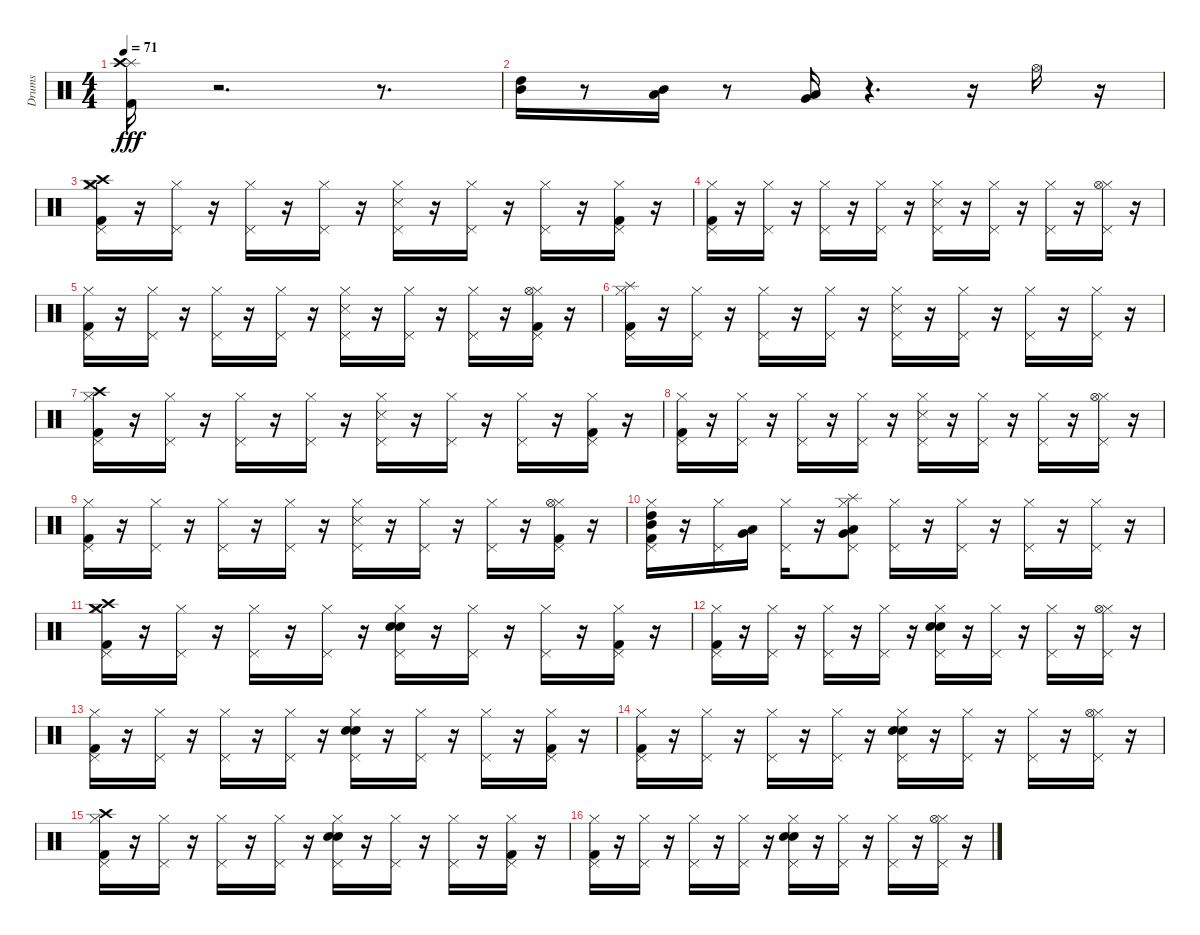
\track ("Drums" "Drums") {instrument percussion}
\staff {score}
\articulation defaults
\ts (4 4)
\tempo 71
\clef neutral
\ks c
("Splash (hit)" "Crash high (hit)" "Kick (hit) 2").16{dy fff} r.2{d} r.8{d} |
("Mid Tom (hit)" "High Tom (hit)").16 r.8 ("Low Tom (hit)" "Mid Tom (hit)").16 r.8 ("Very Low Tom (hit)" "Low Tom (hit)").16 r.4{d} r.16 "Hi-Hat (open)".16 r.16 |
("Hi-Hat (closed)" "Crash medium (hit)" "Crash high (hit)" "Pedal Hi-Hat (hit)" "Kick (hit) 2").16 r.16 ("Hi-Hat (closed)" "Pedal Hi-Hat (hit)").16 r.16 ("Hi-Hat (closed)" "Pedal Hi-Hat (hit)").16 r.16 ("Hi-Hat (closed)" "Pedal Hi-Hat (hit)").16 r.16 ("Hi-Hat (closed)" "Snare (side stick) 3" "Pedal Hi-Hat (hit)").16 r.16 ("Hi-Hat (closed)" "Pedal Hi-Hat (hit)").16 r.16 ("Hi-Hat (closed)" "Pedal Hi-Hat (hit)").16 r.16 ("Hi-Hat (closed)" "Kick (hit) 2" "Pedal Hi-Hat (hit)").16 r.16 |
("Hi-Hat (closed)" "Kick (hit) 2" "Pedal Hi-Hat (hit)").16 r.16 ("Hi-Hat (closed)" "Pedal Hi-Hat (hit)").16 r.16 ("Hi-Hat (closed)" "Pedal Hi-Hat (hit)").16 r.16 ("Hi-Hat (closed)" "Pedal Hi-Hat (hit)").16 r.16 ("Hi-Hat (closed)" "Snare (side stick) 3" "Pedal Hi-Hat (hit)").16 r.16 ("Hi-Hat (closed)" "Pedal Hi-Hat (hit)").16 r.16 ("Hi-Hat (closed)" "Pedal Hi-Hat (hit)").16 r.16 ("Hi-Hat (closed)" "Pedal Hi-Hat (hit)" "Hi-Hat (open)").16 r.16 |
("Hi-Hat (closed)" "Kick (hit) 2" "Pedal Hi-Hat (hit)").16 r.16 ("Hi-Hat (closed)" "Pedal Hi-Hat (hit)").16 r.16 ("Hi-Hat (closed)" "Pedal Hi-Hat (hit)").16 r.16 ("Hi-Hat (closed)" "Pedal Hi-Hat (hit)").16 r.16 ("Hi-Hat (closed)" "Snare (side stick) 3" "Pedal Hi-Hat (hit)").16 r.16 ("Hi-Hat (closed)" "Pedal Hi-Hat (hit)").16 r.16 ("Hi-Hat (closed)" "Pedal Hi-Hat (hit)").16 r.16 ("Hi-Hat (closed)" "Pedal Hi-Hat (hit)" "Hi-Hat (open)" "Kick (hit) 2").16 r.16 |
("Hi-Hat (closed)" "Splash (hit)" "Kick (hit) 2" "Pedal Hi-Hat (hit)").16 r.16 ("Hi-Hat (closed)" "Pedal Hi-Hat (hit)").16 r.16 ("Hi-Hat (closed)" "Pedal Hi-Hat (hit)").16 r.16 ("Hi-Hat (closed)" "Pedal Hi-Hat (hit)").16 r.16 ("Hi-Hat (closed)" "Snare (side stick) 3" "Pedal Hi-Hat (hit)").16 r.16 ("Hi-Hat (closed)" "Pedal Hi-Hat (hit)").16 r.16 ("Hi-Hat (closed)" "Pedal Hi-Hat (hit)").16 r.16 ("Hi-Hat (closed)" "Pedal Hi-Hat (hit)").16 r.16 |
("Hi-Hat (closed)" "Kick (hit) 2" "Pedal Hi-Hat (hit)" "Crash high (hit)").16 r.16 ("Hi-Hat (closed)" "Pedal Hi-Hat (hit)").16 r.16 ("Hi-Hat (closed)" "Pedal Hi-Hat (hit)").16 r.16 ("Hi-Hat (closed)" "Pedal Hi-Hat (hit)").16 r.16 ("Hi-Hat (closed)" "Pedal Hi-Hat (hit)" "Snare (side stick) 3").16 r.16 ("Hi-Hat (closed)" "Pedal Hi-Hat (hit)").16 r.16 ("Hi-Hat (closed)" "Pedal Hi-Hat (hit)").16 r.16 ("Hi-Hat (closed)" "Pedal Hi-Hat (hit)" "Kick (hit) 2").16 r.16 |
("Hi-Hat (closed)" "Pedal Hi-Hat (hit)" "Kick (hit) 2").16 r.16 ("Hi-Hat (closed)" "Pedal Hi-Hat (hit)").16 r.16 ("Hi-Hat (closed)" "Pedal Hi-Hat (hit)").16 r.16 ("Hi-Hat (closed)" "Pedal Hi-Hat (hit)").16 r.16 ("Hi-Hat (closed)" "Pedal Hi-Hat (hit)" "Snare (side stick) 3").16 r.16 ("Hi-Hat (closed)" "Pedal Hi-Hat (hit)").16 r.16 ("Hi-Hat (closed)" "Pedal Hi-Hat (hit)").16 r.16 ("Hi-Hat (closed)" "Pedal Hi-Hat (hit)" "Hi-Hat (open)").16 r.16 |
("Hi-Hat (closed)" "Pedal Hi-Hat (hit)" "Kick (hit) 2").16 r.16 ("Hi-Hat (closed)" "Pedal Hi-Hat (hit)").16 r.16 ("Hi-Hat (closed)" "Pedal Hi-Hat (hit)").16 r.16 ("Hi-Hat (closed)" "Pedal Hi-Hat (hit)").16 r.16 ("Hi-Hat (closed)" "Pedal Hi-Hat (hit)" "Snare (side stick) 3").16 r.16 ("Hi-Hat (closed)" "Pedal Hi-Hat (hit)").16 r.16 ("Hi-Hat (closed)" "Pedal Hi-Hat (hit)").16 r.16 ("Hi-Hat (closed)" "Pedal Hi-Hat (hit)" "Kick (hit) 2" "Hi-Hat (open)").16 r.16 |
("Hi-Hat (closed)" "Mid Tom (hit)" "High Tom (hit)" "Pedal Hi-Hat (hit)" "Kick (hit) 2").16 r.16 ("Hi-Hat (closed)" "Pedal Hi-Hat (hit)").16 ("Very Low Tom (hit)" "Low Tom (hit)").16 ("Hi-Hat (closed)" "Pedal Hi-Hat (hit)").16 r.16 ("Hi-Hat (closed)" "Low Floor Tom (hit)" "Splash (hit)" "Pedal Hi-Hat (hit)" "Very Low Tom (hit)").8 ("Hi-Hat (closed)" "Pedal Hi-Hat (hit)").16 r.16 ("Hi-Hat (closed)" "Pedal Hi-Hat (hit)").16 r.16 ("Hi-Hat (closed)" "Pedal Hi-Hat (hit)").16 r.16 ("Hi-Hat (closed)" "Pedal Hi-Hat (hit)").16 r.16 |
("Hi-Hat (closed)" "Crash medium (hit)" "Crash high (hit)" "Pedal Hi-Hat (hit)" "Kick (hit) 2").16 r.16 ("Hi-Hat (closed)" "Pedal Hi-Hat (hit)").16 r.16 ("Hi-Hat (closed)" "Pedal Hi-Hat (hit)").16 r.16 ("Hi-Hat (closed)" "Pedal Hi-Hat (hit)").16 r.16 ("Hi-Hat (closed)" "Snare (hit) 2" "Electric Snare (hit)" "Pedal Hi-Hat (hit)").16 r.16 ("Hi-Hat (closed)" "Pedal Hi-Hat (hit)").16 r.16 ("Hi-Hat (closed)" "Pedal Hi-Hat (hit)").16 r.16 ("Hi-Hat (closed)" "Pedal Hi-Hat (hit)" "Kick (hit) 2").16 r.16 |
("Hi-Hat (closed)" "Pedal Hi-Hat (hit)" "Kick (hit) 2").16 r.16 ("Hi-Hat (closed)" "Pedal Hi-Hat (hit)").16 r.16 ("Hi-Hat (closed)" "Pedal Hi-Hat (hit)").16 r.16 ("Hi-Hat (closed)" "Pedal Hi-Hat (hit)").16 r.16 ("Hi-Hat (closed)" "Snare (hit) 2" "Electric Snare (hit)" "Pedal Hi-Hat (hit)").16 r.16 ("Hi-Hat (closed)" "Pedal Hi-Hat (hit)").16 r.16 ("Hi-Hat (closed)" "Pedal Hi-Hat (hit)").16 r.16 ("Hi-Hat (closed)" "Pedal Hi-Hat (hit)" "Hi-Hat (open)").16 r.16 |
("Hi-Hat (closed)" "Pedal Hi-Hat (hit)" "Kick (hit) 2").16 r.16 ("Hi-Hat (closed)" "Pedal Hi-Hat (hit)").16 r.16 ("Hi-Hat (closed)" "Pedal Hi-Hat (hit)").16 r.16 ("Hi-Hat (closed)" "Pedal Hi-Hat (hit)").16 r.16 ("Hi-Hat (closed)" "Snare (hit) 2" "Electric Snare (hit)" "Pedal Hi-Hat (hit)").16 r.16 ("Hi-Hat (closed)" "Pedal Hi-Hat (hit)").16 r.16 ("Hi-Hat (closed)" "Pedal Hi-Hat (hit)").16 r.16 ("Hi-Hat (closed)" "Pedal Hi-Hat (hit)" "Kick (hit) 2").16 r.16 |
("Hi-Hat (closed)" "Pedal Hi-Hat (hit)" "Kick (hit) 2").16 r.16 ("Hi-Hat (closed)" "Pedal Hi-Hat (hit)").16 r.16 ("Hi-Hat (closed)" "Pedal Hi-Hat (hit)").16 r.16 ("Hi-Hat (closed)" "Pedal Hi-Hat (hit)").16 r.16 ("Hi-Hat (closed)" "Snare (hit) 2" "Electric Snare (hit)" "Pedal Hi-Hat (hit)").16 r.16 ("Hi-Hat (closed)" "Pedal Hi-Hat (hit)").16 r.16 ("Hi-Hat (closed)" "Pedal Hi-Hat (hit)").16 r.16 ("Hi-Hat (closed)" "Pedal Hi-Hat (hit)" "Hi-Hat (open)").16 r.16 |
("Hi-Hat (closed)" "Pedal Hi-Hat (hit)" "Crash high (hit)" "Kick (hit) 2").16 r.16 ("Hi-Hat (closed)" "Pedal Hi-Hat (hit)").16 r.16 ("Hi-Hat (closed)" "Pedal Hi-Hat (hit)").16 r.16 ("Hi-Hat (closed)" "Pedal Hi-Hat (hit)").16 r.16 ("Hi-Hat (closed)" "Snare (hit) 2" "Electric Snare (hit)" "Pedal Hi-Hat (hit)").16 r.16 ("Hi-Hat (closed)" "Pedal Hi-Hat (hit)").16 r.16 ("Hi-Hat (closed)" "Pedal Hi-Hat (hit)").16 r.16 ("Hi-Hat (closed)" "Pedal Hi-Hat (hit)" "Kick (hit) 2").16 r.16 |
("Hi-Hat (closed)" "Pedal Hi-Hat (hit)" "Kick (hit) 2").16 r.16 ("Hi-Hat (closed)" "Pedal Hi-Hat (hit)").16 r.16 ("Hi-Hat (closed)" "Pedal Hi-Hat (hit)").16 r.16 ("Hi-Hat (closed)" "Pedal Hi-Hat (hit)").16 r.16 ("Hi-Hat (closed)" "Snare (hit) 2" "Electric Snare (hit)" "Pedal Hi-Hat (hit)").16 r.16 ("Hi-Hat (closed)" "Pedal Hi-Hat (hit)").16 r.16 ("Hi-Hat (closed)" "Pedal Hi-Hat (hit)").16 r.16 ("Hi-Hat (closed)" "Pedal Hi-Hat (hit)" "Hi-Hat (open)").16 r.16
